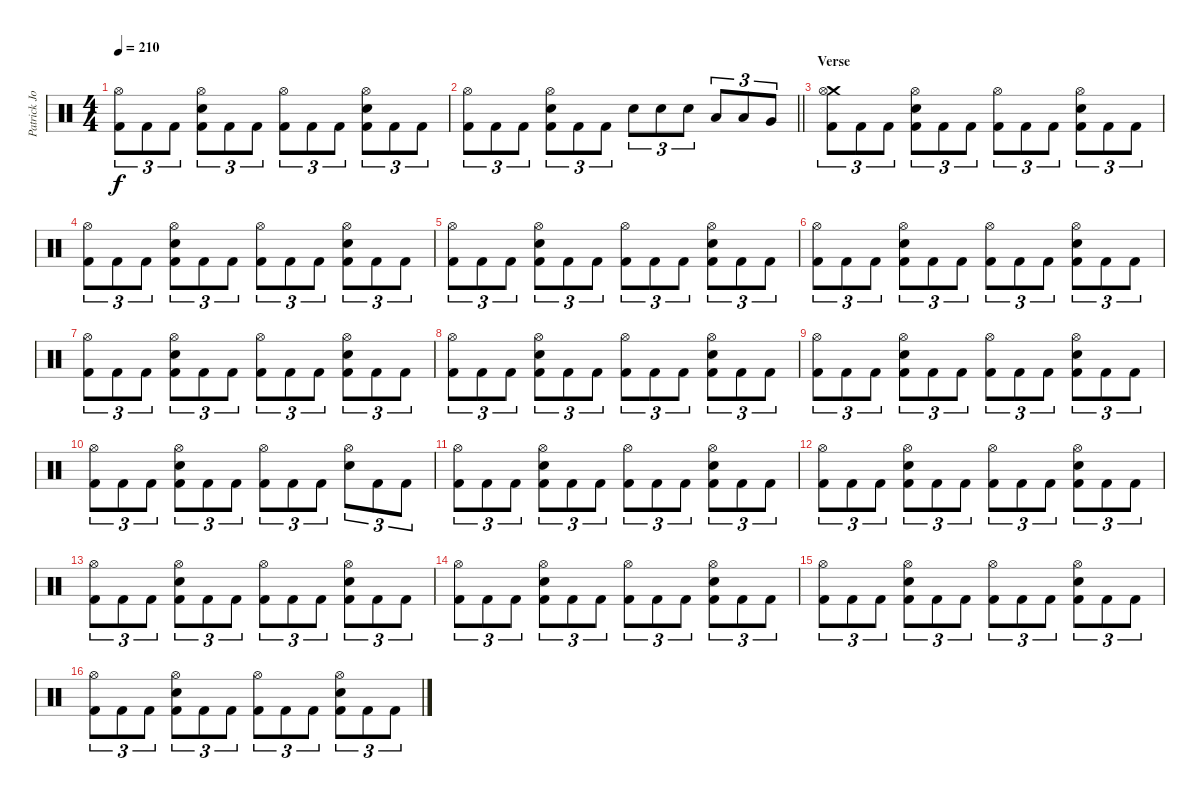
\track ("Patrick Johansson" "Patrick Jo") {instrument percussion}
\staff {score}
\articulation defaults
\ts (4 4)
\tempo 210
\clef neutral
\ks c
("Hi-Hat (open)" "Kick (hit) 2").8{tu (3 2) dy f} "Kick (hit) 2".8{tu (3 2)} "Kick (hit) 2".8{tu (3 2)} ("Hi-Hat (open)" "Snare (hit) 2" "Kick (hit) 2").8{tu (3 2)} "Kick (hit) 2".8{tu (3 2)} "Kick (hit) 2".8{tu (3 2)} ("Hi-Hat (open)" "Kick (hit) 2").8{tu (3 2)} "Kick (hit) 2".8{tu (3 2)} "Kick (hit) 2".8{tu (3 2)} ("Hi-Hat (open)" "Snare (hit) 2" "Kick (hit) 2").8{tu (3 2)} "Kick (hit) 2".8{tu (3 2)} "Kick (hit) 2".8{tu (3 2)} |
\barLineRight lightlight
("Hi-Hat (open)" "Kick (hit) 2").8{tu (3 2)} "Kick (hit) 2".8{tu (3 2)} "Kick (hit) 2".8{tu (3 2)} ("Hi-Hat (open)" "Snare (hit) 2" "Kick (hit) 2").8{tu (3 2)} "Kick (hit) 2".8{tu (3 2)} "Kick (hit) 2".8{tu (3 2)} "Snare (hit) 2".8{tu (3 2)} "Snare (hit) 2".8{tu (3 2)} "Snare (hit) 2".8{tu (3 2)} "Low Tom (hit)".8{tu (3 2)} "Low Tom (hit)".8{tu (3 2)} "Very Low Tom (hit)".8{tu (3 2)} |
\section ("" "Verse")
("Crash medium (hit)" "Hi-Hat (open)" "Kick (hit) 2").8{tu (3 2)} "Kick (hit) 2".8{tu (3 2)} "Kick (hit) 2".8{tu (3 2)} ("Hi-Hat (open)" "Snare (hit) 2" "Kick (hit) 2").8{tu (3 2)} "Kick (hit) 2".8{tu (3 2)} "Kick (hit) 2".8{tu (3 2)} ("Hi-Hat (open)" "Kick (hit) 2").8{tu (3 2)} "Kick (hit) 2".8{tu (3 2)} "Kick (hit) 2".8{tu (3 2)} ("Hi-Hat (open)" "Snare (hit) 2" "Kick (hit) 2").8{tu (3 2)} "Kick (hit) 2".8{tu (3 2)} "Kick (hit) 2".8{tu (3 2)} |
("Hi-Hat (open)" "Kick (hit) 2").8{tu (3 2)} "Kick (hit) 2".8{tu (3 2)} "Kick (hit) 2".8{tu (3 2)} ("Hi-Hat (open)" "Snare (hit) 2" "Kick (hit) 2").8{tu (3 2)} "Kick (hit) 2".8{tu (3 2)} "Kick (hit) 2".8{tu (3 2)} ("Hi-Hat (open)" "Kick (hit) 2").8{tu (3 2)} "Kick (hit) 2".8{tu (3 2)} "Kick (hit) 2".8{tu (3 2)} ("Hi-Hat (open)" "Snare (hit) 2" "Kick (hit) 2").8{tu (3 2)} "Kick (hit) 2".8{tu (3 2)} "Kick (hit) 2".8{tu (3 2)} |
("Hi-Hat (open)" "Kick (hit) 2").8{tu (3 2)} "Kick (hit) 2".8{tu (3 2)} "Kick (hit) 2".8{tu (3 2)} ("Hi-Hat (open)" "Snare (hit) 2" "Kick (hit) 2").8{tu (3 2)} "Kick (hit) 2".8{tu (3 2)} "Kick (hit) 2".8{tu (3 2)} ("Hi-Hat (open)" "Kick (hit) 2").8{tu (3 2)} "Kick (hit) 2".8{tu (3 2)} "Kick (hit) 2".8{tu (3 2)} ("Hi-Hat (open)" "Snare (hit) 2" "Kick (hit) 2").8{tu (3 2)} "Kick (hit) 2".8{tu (3 2)} "Kick (hit) 2".8{tu (3 2)} |
("Hi-Hat (open)" "Kick (hit) 2").8{tu (3 2)} "Kick (hit) 2".8{tu (3 2)} "Kick (hit) 2".8{tu (3 2)} ("Hi-Hat (open)" "Snare (hit) 2" "Kick (hit) 2").8{tu (3 2)} "Kick (hit) 2".8{tu (3 2)} "Kick (hit) 2".8{tu (3 2)} ("Hi-Hat (open)" "Kick (hit) 2").8{tu (3 2)} "Kick (hit) 2".8{tu (3 2)} "Kick (hit) 2".8{tu (3 2)} ("Hi-Hat (open)" "Snare (hit) 2" "Kick (hit) 2").8{tu (3 2)} "Kick (hit) 2".8{tu (3 2)} "Kick (hit) 2".8{tu (3 2)} |
("Hi-Hat (open)" "Kick (hit) 2").8{tu (3 2)} "Kick (hit) 2".8{tu (3 2)} "Kick (hit) 2".8{tu (3 2)} ("Hi-Hat (open)" "Snare (hit) 2" "Kick (hit) 2").8{tu (3 2)} "Kick (hit) 2".8{tu (3 2)} "Kick (hit) 2".8{tu (3 2)} ("Hi-Hat (open)" "Kick (hit) 2").8{tu (3 2)} "Kick (hit) 2".8{tu (3 2)} "Kick (hit) 2".8{tu (3 2)} ("Hi-Hat (open)" "Snare (hit) 2" "Kick (hit) 2").8{tu (3 2)} "Kick (hit) 2".8{tu (3 2)} "Kick (hit) 2".8{tu (3 2)} |
("Hi-Hat (open)" "Kick (hit) 2").8{tu (3 2)} "Kick (hit) 2".8{tu (3 2)} "Kick (hit) 2".8{tu (3 2)} ("Hi-Hat (open)" "Snare (hit) 2" "Kick (hit) 2").8{tu (3 2)} "Kick (hit) 2".8{tu (3 2)} "Kick (hit) 2".8{tu (3 2)} ("Hi-Hat (open)" "Kick (hit) 2").8{tu (3 2)} "Kick (hit) 2".8{tu (3 2)} "Kick (hit) 2".8{tu (3 2)} ("Hi-Hat (open)" "Snare (hit) 2" "Kick (hit) 2").8{tu (3 2)} "Kick (hit) 2".8{tu (3 2)} "Kick (hit) 2".8{tu (3 2)} |
("Hi-Hat (open)" "Kick (hit) 2").8{tu (3 2)} "Kick (hit) 2".8{tu (3 2)} "Kick (hit) 2".8{tu (3 2)} ("Hi-Hat (open)" "Snare (hit) 2" "Kick (hit) 2").8{tu (3 2)} "Kick (hit) 2".8{tu (3 2)} "Kick (hit) 2".8{tu (3 2)} ("Hi-Hat (open)" "Kick (hit) 2").8{tu (3 2)} "Kick (hit) 2".8{tu (3 2)} "Kick (hit) 2".8{tu (3 2)} ("Hi-Hat (open)" "Snare (hit) 2" "Kick (hit) 2").8{tu (3 2)} "Kick (hit) 2".8{tu (3 2)} "Kick (hit) 2".8{tu (3 2)} |
("Hi-Hat (open)" "Kick (hit) 2").8{tu (3 2)} "Kick (hit) 2".8{tu (3 2)} "Kick (hit) 2".8{tu (3 2)} ("Hi-Hat (open)" "Snare (hit) 2" "Kick (hit) 2").8{tu (3 2)} "Kick (hit) 2".8{tu (3 2)} "Kick (hit) 2".8{tu (3 2)} ("Hi-Hat (open)" "Kick (hit) 2").8{tu (3 2)} "Kick (hit) 2".8{tu (3 2)} "Kick (hit) 2".8{tu (3 2)} ("Hi-Hat (open)" "Snare (hit) 2").8{tu (3 2)} "Kick (hit) 2".8{tu (3 2)} "Kick (hit) 2".8{tu (3 2)} |
("Hi-Hat (open)" "Kick (hit) 2").8{tu (3 2)} "Kick (hit) 2".8{tu (3 2)} "Kick (hit) 2".8{tu (3 2)} ("Hi-Hat (open)" "Snare (hit) 2" "Kick (hit) 2").8{tu (3 2)} "Kick (hit) 2".8{tu (3 2)} "Kick (hit) 2".8{tu (3 2)} ("Hi-Hat (open)" "Kick (hit) 2").8{tu (3 2)} "Kick (hit) 2".8{tu (3 2)} "Kick (hit) 2".8{tu (3 2)} ("Hi-Hat (open)" "Snare (hit) 2" "Kick (hit) 2").8{tu (3 2)} "Kick (hit) 2".8{tu (3 2)} "Kick (hit) 2".8{tu (3 2)} |
("Hi-Hat (open)" "Kick (hit) 2").8{tu (3 2)} "Kick (hit) 2".8{tu (3 2)} "Kick (hit) 2".8{tu (3 2)} ("Hi-Hat (open)" "Snare (hit) 2" "Kick (hit) 2").8{tu (3 2)} "Kick (hit) 2".8{tu (3 2)} "Kick (hit) 2".8{tu (3 2)} ("Hi-Hat (open)" "Kick (hit) 2").8{tu (3 2)} "Kick (hit) 2".8{tu (3 2)} "Kick (hit) 2".8{tu (3 2)} ("Hi-Hat (open)" "Snare (hit) 2" "Kick (hit) 2").8{tu (3 2)} "Kick (hit) 2".8{tu (3 2)} "Kick (hit) 2".8{tu (3 2)} |
("Hi-Hat (open)" "Kick (hit) 2").8{tu (3 2)} "Kick (hit) 2".8{tu (3 2)} "Kick (hit) 2".8{tu (3 2)} ("Hi-Hat (open)" "Snare (hit) 2" "Kick (hit) 2").8{tu (3 2)} "Kick (hit) 2".8{tu (3 2)} "Kick (hit) 2".8{tu (3 2)} ("Hi-Hat (open)" "Kick (hit) 2").8{tu (3 2)} "Kick (hit) 2".8{tu (3 2)} "Kick (hit) 2".8{tu (3 2)} ("Hi-Hat (open)" "Snare (hit) 2" "Kick (hit) 2").8{tu (3 2)} "Kick (hit) 2".8{tu (3 2)} "Kick (hit) 2".8{tu (3 2)} |
("Hi-Hat (open)" "Kick (hit) 2").8{tu (3 2)} "Kick (hit) 2".8{tu (3 2)} "Kick (hit) 2".8{tu (3 2)} ("Hi-Hat (open)" "Snare (hit) 2" "Kick (hit) 2").8{tu (3 2)} "Kick (hit) 2".8{tu (3 2)} "Kick (hit) 2".8{tu (3 2)} ("Hi-Hat (open)" "Kick (hit) 2").8{tu (3 2)} "Kick (hit) 2".8{tu (3 2)} "Kick (hit) 2".8{tu (3 2)} ("Hi-Hat (open)" "Snare (hit) 2" "Kick (hit) 2").8{tu (3 2)} "Kick (hit) 2".8{tu (3 2)} "Kick (hit) 2".8{tu (3 2)} |
("Hi-Hat (open)" "Kick (hit) 2").8{tu (3 2)} "Kick (hit) 2".8{tu (3 2)} "Kick (hit) 2".8{tu (3 2)} ("Hi-Hat (open)" "Snare (hit) 2" "Kick (hit) 2").8{tu (3 2)} "Kick (hit) 2".8{tu (3 2)} "Kick (hit) 2".8{tu (3 2)} ("Hi-Hat (open)" "Kick (hit) 2").8{tu (3 2)} "Kick (hit) 2".8{tu (3 2)} "Kick (hit) 2".8{tu (3 2)} ("Hi-Hat (open)" "Snare (hit) 2" "Kick (hit) 2").8{tu (3 2)} "Kick (hit) 2".8{tu (3 2)} "Kick (hit) 2".8{tu (3 2)} |
("Hi-Hat (open)" "Kick (hit) 2").8{tu (3 2)} "Kick (hit) 2".8{tu (3 2)} "Kick (hit) 2".8{tu (3 2)} ("Hi-Hat (open)" "Snare (hit) 2" "Kick (hit) 2").8{tu (3 2)} "Kick (hit) 2".8{tu (3 2)} "Kick (hit) 2".8{tu (3 2)} ("Hi-Hat (open)" "Kick (hit) 2").8{tu (3 2)} "Kick (hit) 2".8{tu (3 2)} "Kick (hit) 2".8{tu (3 2)} ("Hi-Hat (open)" "Snare (hit) 2" "Kick (hit) 2").8{tu (3 2)} "Kick (hit) 2".8{tu (3 2)} "Kick (hit) 2".8{tu (3 2)}
